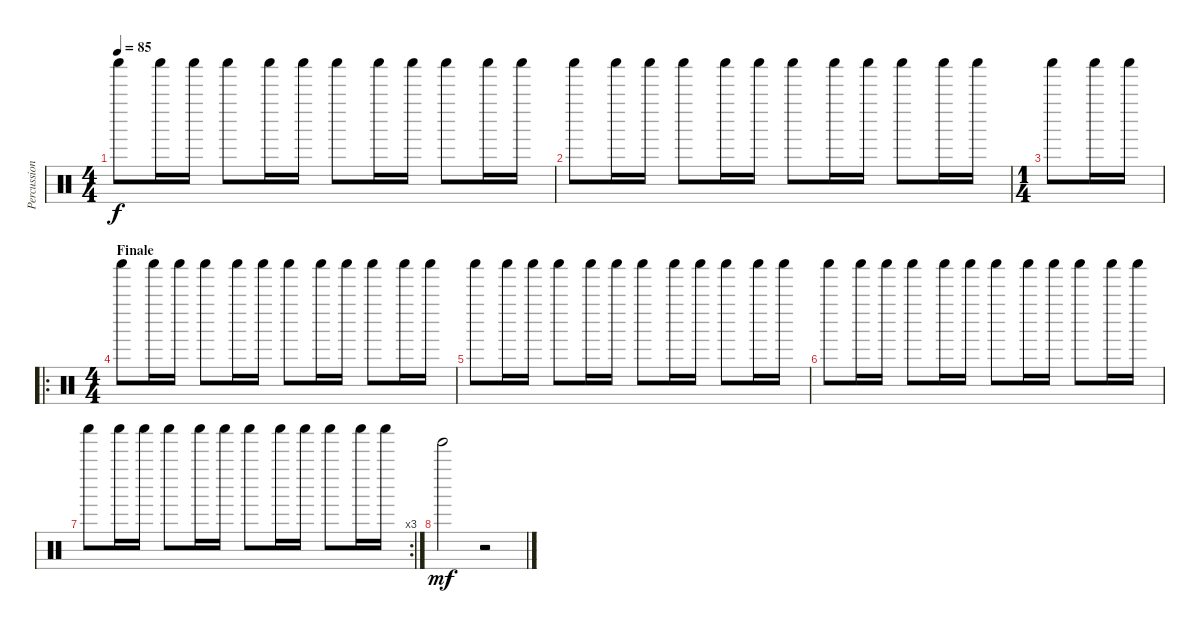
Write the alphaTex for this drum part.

\track ("Percussion" "Percussion") {instrument percussion}
\staff {score}
\articulation defaults
\ts (4 4)
\tempo 85
\clef neutral
\ks c "Shaker (hit)".8{dy f} "Shaker (hit)".16 "Shaker (hit)".16 "Shaker (hit)".8 "Shaker (hit)".16 "Shaker (hit)".16 "Shaker (hit)".8 "Shaker (hit)".16 "Shaker (hit)".16 "Shaker (hit)".8 "Shaker (hit)".16 "Shaker (hit)".16
|
"Shaker (hit)".8 "Shaker (hit)".16 "Shaker (hit)".16 "Shaker (hit)".8 "Shaker (hit)".16 "Shaker (hit)".16 "Shaker (hit)".8 "Shaker (hit)".16 "Shaker (hit)".16 "Shaker (hit)".8 "Shaker (hit)".16 "Shaker (hit)".16 |
\ts (1 4)
"Shaker (hit)".8 "Shaker (hit)".16 "Shaker (hit)".16 |
\ro
\ts (4 4)
\section ("" "Finale")
"Shaker (hit)".8 "Shaker (hit)".16 "Shaker (hit)".16 "Shaker (hit)".8 "Shaker (hit)".16 "Shaker (hit)".16 "Shaker (hit)".8 "Shaker (hit)".16 "Shaker (hit)".16 "Shaker (hit)".8 "Shaker (hit)".16 "Shaker (hit)".16 |
"Shaker (hit)".8 "Shaker (hit)".16 "Shaker (hit)".16 "Shaker (hit)".8 "Shaker (hit)".16 "Shaker (hit)".16 "Shaker (hit)".8 "Shaker (hit)".16 "Shaker (hit)".16 "Shaker (hit)".8 "Shaker (hit)".16 "Shaker (hit)".16 |
"Shaker (hit)".8 "Shaker (hit)".16 "Shaker (hit)".16 "Shaker (hit)".8 "Shaker (hit)".16 "Shaker (hit)".16 "Shaker (hit)".8 "Shaker (hit)".16 "Shaker (hit)".16 "Shaker (hit)".8 "Shaker (hit)".16 "Shaker (hit)".16 |
\rc 3 "Shaker (hit)".8 "Shaker (hit)".16 "Shaker (hit)".16 "Shaker (hit)".8 "Shaker (hit)".16 "Shaker (hit)".16 "Shaker (hit)".8 "Shaker (hit)".16 "Shaker (hit)".16 "Shaker (hit)".8 "Shaker (hit)".16 "Shaker (hit)".16
|
"Tinkle Bell (hit)".2{dy mf} r.2
